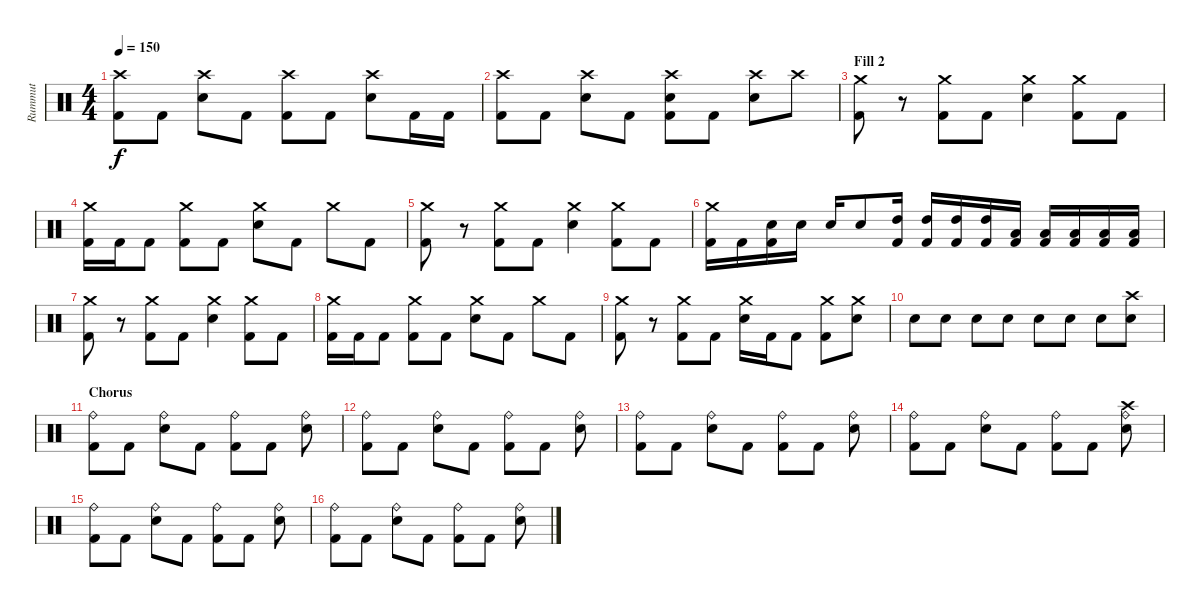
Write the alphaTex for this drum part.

\track ("Rummut" "Rummut") {instrument percussion}
\staff {score}
\articulation defaults
\ts (4 4)
\tempo 150
\clef neutral
\ks c
("Crash high (hit)" "Kick (hit) 2").8{dy f} "Kick (hit) 2".8 ("Crash high (hit)" "Snare (hit) 2").8 "Kick (hit) 2".8 ("Crash high (hit)" "Kick (hit) 2").8 "Kick (hit) 2".8 ("Crash high (hit)" "Snare (hit) 2").8 "Kick (hit) 2".16 "Kick (hit) 2".16 |
("Crash high (hit)" "Kick (hit) 2").8 "Kick (hit) 2".8 ("Crash high (hit)" "Snare (hit) 2").8 "Kick (hit) 2".8 ("Crash high (hit)" "Snare (hit) 2" "Kick (hit) 2").8 "Kick (hit) 2".8 ("Crash high (hit)" "Snare (hit) 2").8 "Crash high (hit)".8 |
\section ("" "Fill 2")
("Crash medium (hit)" "Kick (hit) 2").8 r.8 ("Crash medium (hit)" "Kick (hit) 2").8 "Kick (hit) 2".8 ("Crash medium (hit)" "Snare (hit) 2").4 ("Crash medium (hit)" "Kick (hit) 2").8 "Kick (hit) 2".8 |
("Crash medium (hit)" "Kick (hit) 2").16 "Kick (hit) 2".16 "Kick (hit) 2".8 ("Crash medium (hit)" "Kick (hit) 2").8 "Kick (hit) 2".8 ("Crash medium (hit)" "Snare (hit) 2").8 "Kick (hit) 2".8 "Crash medium (hit)".8 "Kick (hit) 2".8 |
("Crash medium (hit)" "Kick (hit) 2").8 r.8 ("Crash medium (hit)" "Kick (hit) 2").8 "Kick (hit) 2".8 ("Crash medium (hit)" "Snare (hit) 2").4 ("Crash medium (hit)" "Kick (hit) 2").8 "Kick (hit) 2".8 |
("Crash medium (hit)" "Kick (hit) 2").16 "Kick (hit) 2".16 ("Snare (hit) 2" "Kick (hit) 2").16 "Snare (hit) 2".16 "Snare (hit) 2".16 "Snare (hit) 2".8 ("High Tom (hit)" "Kick (hit) 2").16 ("High Tom (hit)" "Kick (hit) 2").16 ("High Tom (hit)" "Kick (hit) 2").16 ("High Tom (hit)" "Kick (hit) 2").16 ("Low Tom (hit)" "Kick (hit) 2").16 ("Low Tom (hit)" "Kick (hit) 2").16 ("Low Tom (hit)" "Kick (hit) 2").16 ("Low Tom (hit)" "Kick (hit) 2").16 ("Low Floor Tom (hit)" "Kick (hit) 2").16 |
("Crash medium (hit)" "Kick (hit) 2").8 r.8 ("Crash medium (hit)" "Kick (hit) 2").8 "Kick (hit) 2".8 ("Crash medium (hit)" "Snare (hit) 2").4 ("Crash medium (hit)" "Kick (hit) 2").8 "Kick (hit) 2".8 |
("Crash medium (hit)" "Kick (hit) 2").16 "Kick (hit) 2".16 "Kick (hit) 2".8 ("Crash medium (hit)" "Kick (hit) 2").8 "Kick (hit) 2".8 ("Crash medium (hit)" "Snare (hit) 2").8 "Kick (hit) 2".8 "Crash medium (hit)".8 "Kick (hit) 2".8 |
("Crash medium (hit)" "Kick (hit) 2").8 r.8 ("Crash medium (hit)" "Kick (hit) 2").8 "Kick (hit) 2".8 ("Crash medium (hit)" "Snare (hit) 2").16 "Kick (hit) 2".16 "Kick (hit) 2".8 ("Crash medium (hit)" "Kick (hit) 2").8 ("Crash medium (hit)" "Snare (hit) 2").8 |
"Snare (hit) 2".8 "Snare (hit) 2".8 "Snare (hit) 2".8 "Snare (hit) 2".8 "Snare (hit) 2".8 "Snare (hit) 2".8 "Snare (hit) 2".8 ("Crash high (hit)" "Snare (hit) 2").8 |
\section ("" "Chorus")
("Ride (bell)" "Kick (hit) 2").8 "Kick (hit) 2".8 ("Ride (bell)" "Snare (hit) 2").8 "Kick (hit) 2".8 ("Ride (bell)" "Kick (hit) 2").8 "Kick (hit) 2".8 ("Ride (bell)" "Snare (hit) 2").8 |
("Ride (bell)" "Kick (hit) 2").8 "Kick (hit) 2".8 ("Ride (bell)" "Snare (hit) 2").8 "Kick (hit) 2".8 ("Ride (bell)" "Kick (hit) 2").8 "Kick (hit) 2".8 ("Ride (bell)" "Snare (hit) 2").8 |
("Ride (bell)" "Kick (hit) 2").8 "Kick (hit) 2".8 ("Ride (bell)" "Snare (hit) 2").8 "Kick (hit) 2".8 ("Ride (bell)" "Kick (hit) 2").8 "Kick (hit) 2".8 ("Ride (bell)" "Snare (hit) 2").8 |
("Ride (bell)" "Kick (hit) 2").8 "Kick (hit) 2".8 ("Ride (bell)" "Snare (hit) 2").8 "Kick (hit) 2".8 ("Ride (bell)" "Kick (hit) 2").8 "Kick (hit) 2".8 ("Crash high (hit)" "Ride (bell)" "Snare (hit) 2").8 |
("Ride (bell)" "Kick (hit) 2").8 "Kick (hit) 2".8 ("Ride (bell)" "Snare (hit) 2").8 "Kick (hit) 2".8 ("Ride (bell)" "Kick (hit) 2").8 "Kick (hit) 2".8 ("Ride (bell)" "Snare (hit) 2").8 |
("Ride (bell)" "Kick (hit) 2").8 "Kick (hit) 2".8 ("Ride (bell)" "Snare (hit) 2").8 "Kick (hit) 2".8 ("Ride (bell)" "Kick (hit) 2").8 "Kick (hit) 2".8 ("Ride (bell)" "Snare (hit) 2").8
